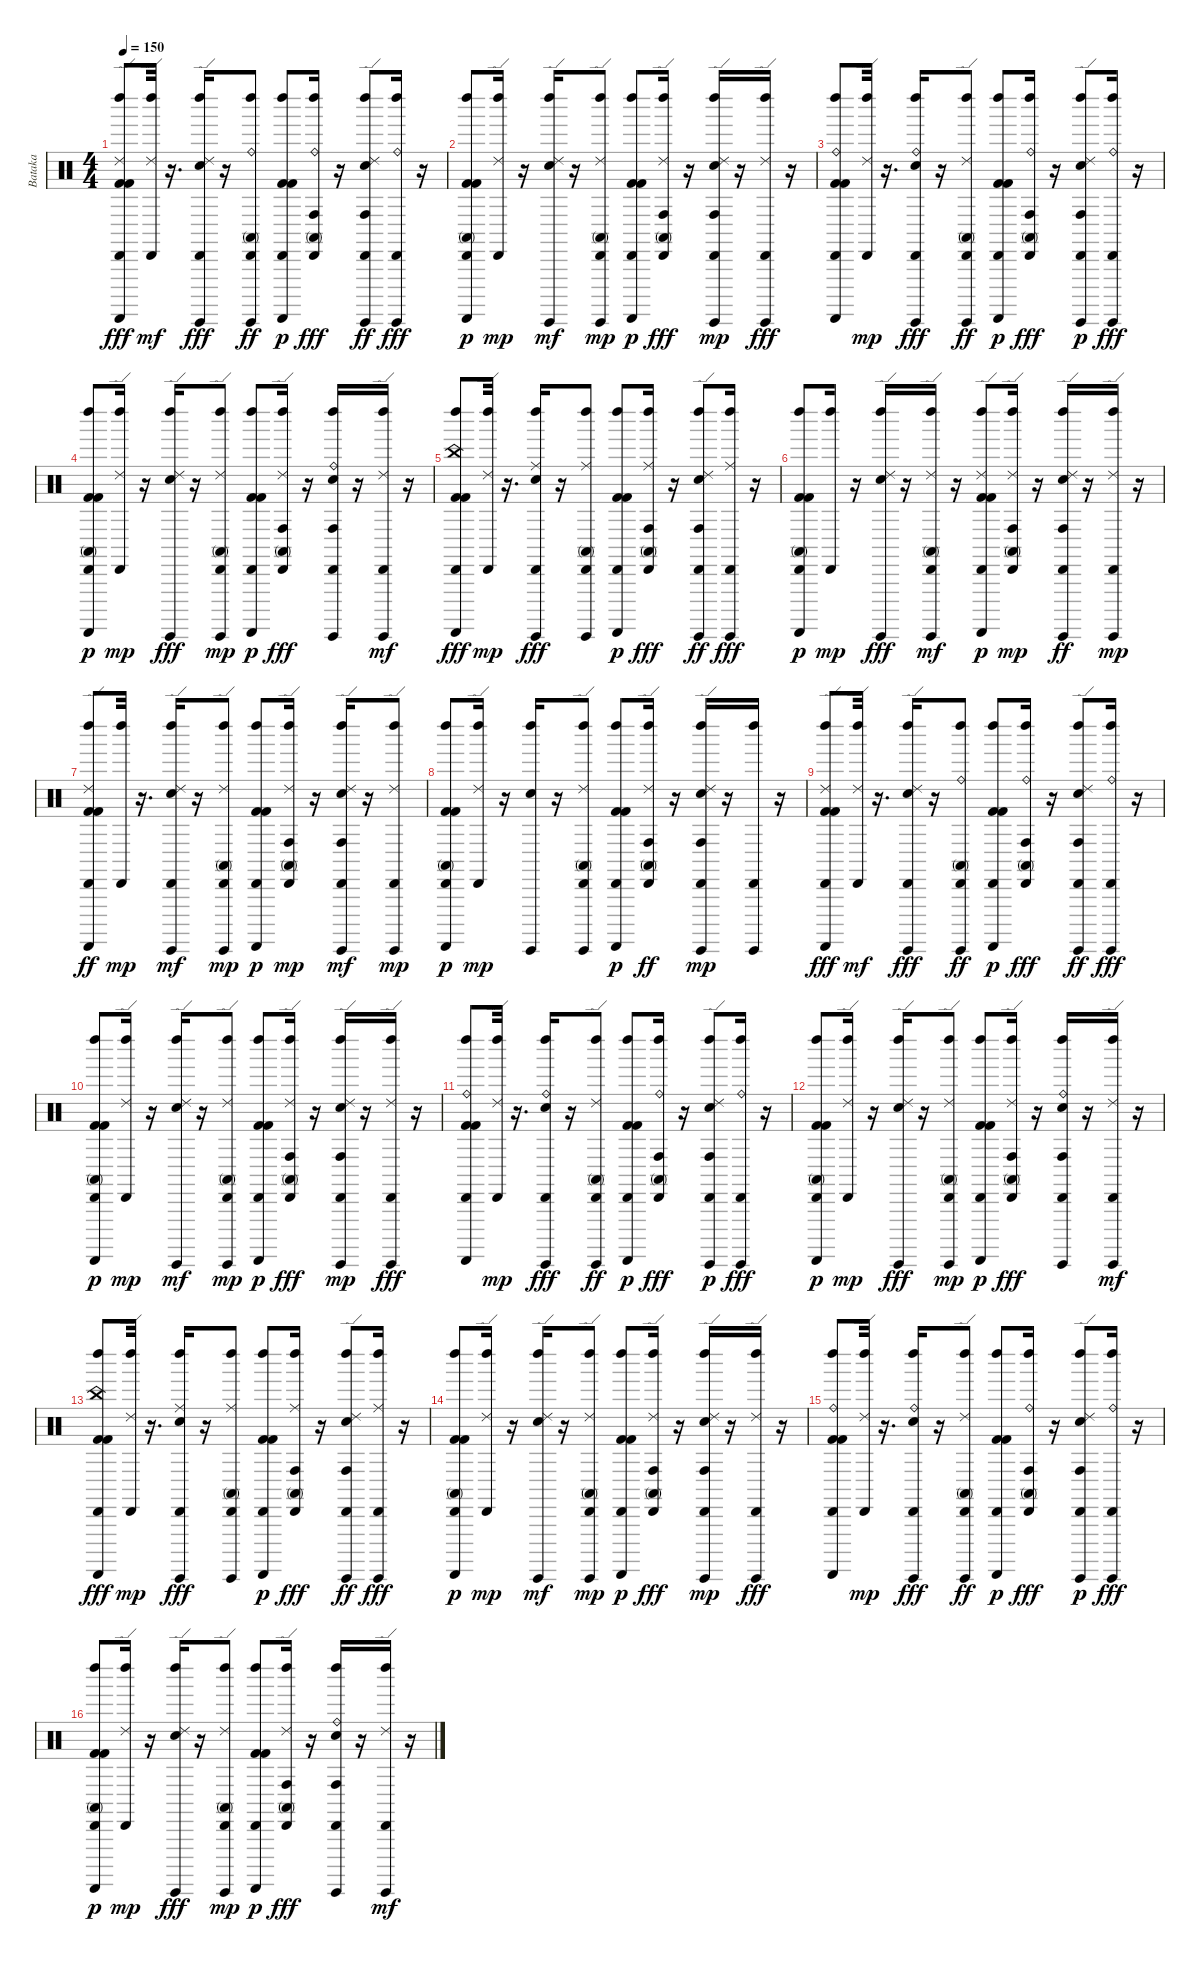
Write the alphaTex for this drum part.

\track ("Bataka" "Bataka") {instrument percussion}
\staff {score}
\articulation defaults
\ts (4 4)
\tempo 150
\clef neutral
\ks c
("Kick (hit) 2" "Kick (hit) 2" "Cabasa (hit)" "Guiro (scrap-return)" "Left Maraca (hit)" "Ride (edge) 2").8{dy fff} ("Cabasa (hit)" "Left Maraca (hit)" "Ride (edge) 2").32{dy mf} r.16{d} ("Electric Snare (hit)" "Cabasa (hit)" "Guiro (hit)" "Left Maraca (hit)" "Ride (edge) 2").16{dy fff} r.16 ("Conga high (mute)" "Cabasa (hit)" "Guiro (hit)" "Left Maraca (hit)" "Ride (bell)").8{dy ff} ("Kick (hit) 2" "Kick (hit) 2" "Cabasa (hit)" "Guiro (scrap-return)" "Left Maraca (hit)").8{dy p} ("Conga high (hit)" "Conga high (mute)" "Cabasa (hit)" "Left Maraca (hit)" "Ride (bell)").16{dy fff} r.16 ("Electric Snare (hit)" "Conga high (hit)" "Cabasa (hit)" "Guiro (hit)" "Left Maraca (hit)" "Ride (edge) 2").8{dy ff} ("Cabasa (hit)" "Guiro (hit)" "Left Maraca (hit)" "Ride (bell)").16{dy fff} r.16 |
("Kick (hit) 2" "Kick (hit) 2" "Conga high (mute)" "Cabasa (hit)" "Guiro (scrap-return)" "Left Maraca (hit)").8{dy p} ("Cabasa (hit)" "Left Maraca (hit)" "Ride (edge) 2").16{dy mp} r.16 ("Electric Snare (hit)" "Guiro (hit)" "Left Maraca (hit)" "Ride (edge) 2").16{dy mf} r.16 ("Conga high (mute)" "Cabasa (hit)" "Guiro (hit)" "Left Maraca (hit)" "Ride (edge) 2").8{dy mp} ("Kick (hit) 2" "Kick (hit) 2" "Cabasa (hit)" "Guiro (scrap-return)" "Left Maraca (hit)").8{dy p} ("Conga high (hit)" "Conga high (mute)" "Cabasa (hit)" "Left Maraca (hit)" "Ride (edge) 2").16{dy fff} r.16 ("Electric Snare (hit)" "Conga high (hit)" "Cabasa (hit)" "Guiro (hit)" "Left Maraca (hit)" "Ride (edge) 2").16{dy mp} r.16 ("Cabasa (hit)" "Guiro (hit)" "Left Maraca (hit)" "Ride (edge) 2").16{dy fff} r.16 |
("Kick (hit) 2" "Kick (hit) 2" "Cabasa (hit)" "Guiro (scrap-return)" "Left Maraca (hit)" "Ride (bell)").8 ("Cabasa (hit)" "Left Maraca (hit)" "Ride (edge) 2").32{dy mp} r.16{d} ("Electric Snare (hit)" "Cabasa (hit)" "Guiro (hit)" "Left Maraca (hit)" "Ride (bell)").16{dy fff} r.16 ("Conga high (mute)" "Cabasa (hit)" "Guiro (hit)" "Left Maraca (hit)" "Ride (edge) 2").8{dy ff} ("Kick (hit) 2" "Kick (hit) 2" "Cabasa (hit)" "Guiro (scrap-return)" "Left Maraca (hit)").8{dy p} ("Conga high (hit)" "Conga high (mute)" "Cabasa (hit)" "Left Maraca (hit)" "Ride (bell)").16{dy fff} r.16 ("Electric Snare (hit)" "Conga high (hit)" "Cabasa (hit)" "Guiro (hit)" "Left Maraca (hit)" "Ride (edge) 2").8{dy p} ("Cabasa (hit)" "Guiro (hit)" "Left Maraca (hit)" "Ride (bell)").16{dy fff} r.16 |
("Kick (hit) 2" "Kick (hit) 2" "Conga high (mute)" "Cabasa (hit)" "Guiro (scrap-return)" "Left Maraca (hit)").8{dy p} ("Cabasa (hit)" "Left Maraca (hit)" "Ride (edge) 2").16{dy mp} r.16 ("Electric Snare (hit)" "Guiro (hit)" "Left Maraca (hit)" "Ride (edge) 2").16{dy fff} r.16 ("Conga high (mute)" "Cabasa (hit)" "Guiro (hit)" "Left Maraca (hit)" "Ride (edge) 2").8{dy mp} ("Kick (hit) 2" "Kick (hit) 2" "Cabasa (hit)" "Guiro (scrap-return)" "Left Maraca (hit)").8{dy p} ("Conga high (hit)" "Conga high (mute)" "Cabasa (hit)" "Left Maraca (hit)" "Ride (edge) 2").16{dy fff} r.16 ("Electric Snare (hit)" "Conga high (hit)" "Cabasa (hit)" "Guiro (hit)" "Left Maraca (hit)" "Ride (bell)").16 r.16 ("Cabasa (hit)" "Guiro (hit)" "Left Maraca (hit)" "Ride (edge) 2").16{dy mf} r.16 |
("Kick (hit) 2" "Kick (hit) 2" "Cabasa (hit)" "Guiro (scrap-return)" "Left Maraca (hit)" "China (hit)").8{dy fff} ("Cabasa (hit)" "Left Maraca (hit)" "Ride (edge) 2").32{dy mp} r.16{d} ("Electric Snare (hit)" "Cabasa (hit)" "Guiro (hit)" "Left Maraca (hit)" "Ride (middle)").16{dy fff} r.16 ("Conga high (mute)" "Cabasa (hit)" "Guiro (hit)" "Left Maraca (hit)" "Ride (middle)").8 ("Kick (hit) 2" "Kick (hit) 2" "Cabasa (hit)" "Guiro (scrap-return)" "Left Maraca (hit)").8{dy p} ("Conga high (hit)" "Conga high (mute)" "Cabasa (hit)" "Left Maraca (hit)" "Ride (middle)").16{dy fff} r.16 ("Electric Snare (hit)" "Conga high (hit)" "Cabasa (hit)" "Guiro (hit)" "Left Maraca (hit)" "Ride (edge) 2").8{dy ff} ("Cabasa (hit)" "Guiro (hit)" "Left Maraca (hit)" "Ride (middle)").16{dy fff} r.16 |
("Kick (hit) 2" "Kick (hit) 2" "Conga high (mute)" "Cabasa (hit)" "Guiro (scrap-return)" "Left Maraca (hit)").8{dy p} ("Cabasa (hit)" "Left Maraca (hit)").16{dy mp} r.16 ("Electric Snare (hit)" "Guiro (hit)" "Left Maraca (hit)" "Ride (edge) 2").16{dy fff} r.16 ("Conga high (mute)" "Cabasa (hit)" "Guiro (hit)" "Left Maraca (hit)" "Ride (edge) 2").16{dy mf} r.16 ("Kick (hit) 2" "Kick (hit) 2" "Cabasa (hit)" "Guiro (scrap-return)" "Left Maraca (hit)" "Ride (edge) 2").8{dy p} ("Conga high (hit)" "Conga high (mute)" "Cabasa (hit)" "Left Maraca (hit)" "Ride (edge) 2").16{dy mp} r.16 ("Electric Snare (hit)" "Conga high (hit)" "Cabasa (hit)" "Guiro (hit)" "Left Maraca (hit)" "Ride (edge) 2").16{dy ff} r.16 ("Cabasa (hit)" "Guiro (hit)" "Left Maraca (hit)" "Ride (edge) 2").16{dy mp} r.16 |
("Kick (hit) 2" "Kick (hit) 2" "Cabasa (hit)" "Guiro (scrap-return)" "Left Maraca (hit)" "Ride (edge) 2").8{dy ff} ("Cabasa (hit)" "Left Maraca (hit)").32{dy mp} r.16{d} ("Electric Snare (hit)" "Cabasa (hit)" "Guiro (hit)" "Left Maraca (hit)" "Ride (edge) 2").16{dy mf} r.16 ("Conga high (mute)" "Cabasa (hit)" "Guiro (hit)" "Left Maraca (hit)" "Ride (edge) 2").8{dy mp} ("Kick (hit) 2" "Kick (hit) 2" "Cabasa (hit)" "Guiro (scrap-return)" "Left Maraca (hit)").8{dy p} ("Conga high (hit)" "Conga high (mute)" "Cabasa (hit)" "Left Maraca (hit)" "Ride (edge) 2").16{dy mp} r.16 ("Electric Snare (hit)" "Conga high (hit)" "Cabasa (hit)" "Guiro (hit)" "Left Maraca (hit)" "Ride (edge) 2").16{dy mf} r.16 ("Cabasa (hit)" "Guiro (hit)" "Left Maraca (hit)" "Ride (edge) 2").8{dy mp} |
("Kick (hit) 2" "Kick (hit) 2" "Conga high (mute)" "Cabasa (hit)" "Guiro (scrap-return)" "Left Maraca (hit)").8{dy p} ("Cabasa (hit)" "Left Maraca (hit)" "Ride (edge) 2").16{dy mp} r.16 ("Electric Snare (hit)" "Guiro (hit)" "Left Maraca (hit)").16 r.16 ("Conga high (mute)" "Cabasa (hit)" "Guiro (hit)" "Left Maraca (hit)" "Ride (edge) 2").8 ("Kick (hit) 2" "Kick (hit) 2" "Cabasa (hit)" "Guiro (scrap-return)" "Left Maraca (hit)").8{dy p} ("Conga high (hit)" "Conga high (mute)" "Cabasa (hit)" "Left Maraca (hit)" "Ride (edge) 2").16{dy ff} r.16 ("Electric Snare (hit)" "Conga high (hit)" "Cabasa (hit)" "Guiro (hit)" "Left Maraca (hit)" "Ride (edge) 2").16{dy mp} r.16 ("Cabasa (hit)" "Guiro (hit)" "Left Maraca (hit)").16 r.16 |
("Kick (hit) 2" "Kick (hit) 2" "Cabasa (hit)" "Guiro (scrap-return)" "Left Maraca (hit)" "Ride (edge) 2").8{dy fff} ("Cabasa (hit)" "Left Maraca (hit)" "Ride (edge) 2").32{dy mf} r.16{d} ("Electric Snare (hit)" "Cabasa (hit)" "Guiro (hit)" "Left Maraca (hit)" "Ride (edge) 2").16{dy fff} r.16 ("Conga high (mute)" "Cabasa (hit)" "Guiro (hit)" "Left Maraca (hit)" "Ride (bell)").8{dy ff} ("Kick (hit) 2" "Kick (hit) 2" "Cabasa (hit)" "Guiro (scrap-return)" "Left Maraca (hit)").8{dy p} ("Conga high (hit)" "Conga high (mute)" "Cabasa (hit)" "Left Maraca (hit)" "Ride (bell)").16{dy fff} r.16 ("Electric Snare (hit)" "Conga high (hit)" "Cabasa (hit)" "Guiro (hit)" "Left Maraca (hit)" "Ride (edge) 2").8{dy ff} ("Cabasa (hit)" "Guiro (hit)" "Left Maraca (hit)" "Ride (bell)").16{dy fff} r.16 |
("Kick (hit) 2" "Kick (hit) 2" "Conga high (mute)" "Cabasa (hit)" "Guiro (scrap-return)" "Left Maraca (hit)").8{dy p} ("Cabasa (hit)" "Left Maraca (hit)" "Ride (edge) 2").16{dy mp} r.16 ("Electric Snare (hit)" "Guiro (hit)" "Left Maraca (hit)" "Ride (edge) 2").16{dy mf} r.16 ("Conga high (mute)" "Cabasa (hit)" "Guiro (hit)" "Left Maraca (hit)" "Ride (edge) 2").8{dy mp} ("Kick (hit) 2" "Kick (hit) 2" "Cabasa (hit)" "Guiro (scrap-return)" "Left Maraca (hit)").8{dy p} ("Conga high (hit)" "Conga high (mute)" "Cabasa (hit)" "Left Maraca (hit)" "Ride (edge) 2").16{dy fff} r.16 ("Electric Snare (hit)" "Conga high (hit)" "Cabasa (hit)" "Guiro (hit)" "Left Maraca (hit)" "Ride (edge) 2").16{dy mp} r.16 ("Cabasa (hit)" "Guiro (hit)" "Left Maraca (hit)" "Ride (edge) 2").16{dy fff} r.16 |
("Kick (hit) 2" "Kick (hit) 2" "Cabasa (hit)" "Guiro (scrap-return)" "Left Maraca (hit)" "Ride (bell)").8 ("Cabasa (hit)" "Left Maraca (hit)" "Ride (edge) 2").32{dy mp} r.16{d} ("Electric Snare (hit)" "Cabasa (hit)" "Guiro (hit)" "Left Maraca (hit)" "Ride (bell)").16{dy fff} r.16 ("Conga high (mute)" "Cabasa (hit)" "Guiro (hit)" "Left Maraca (hit)" "Ride (edge) 2").8{dy ff} ("Kick (hit) 2" "Kick (hit) 2" "Cabasa (hit)" "Guiro (scrap-return)" "Left Maraca (hit)").8{dy p} ("Conga high (hit)" "Conga high (mute)" "Cabasa (hit)" "Left Maraca (hit)" "Ride (bell)").16{dy fff} r.16 ("Electric Snare (hit)" "Conga high (hit)" "Cabasa (hit)" "Guiro (hit)" "Left Maraca (hit)" "Ride (edge) 2").8{dy p} ("Cabasa (hit)" "Guiro (hit)" "Left Maraca (hit)" "Ride (bell)").16{dy fff} r.16 |
("Kick (hit) 2" "Kick (hit) 2" "Conga high (mute)" "Cabasa (hit)" "Guiro (scrap-return)" "Left Maraca (hit)").8{dy p} ("Cabasa (hit)" "Left Maraca (hit)" "Ride (edge) 2").16{dy mp} r.16 ("Electric Snare (hit)" "Guiro (hit)" "Left Maraca (hit)" "Ride (edge) 2").16{dy fff} r.16 ("Conga high (mute)" "Cabasa (hit)" "Guiro (hit)" "Left Maraca (hit)" "Ride (edge) 2").8{dy mp} ("Kick (hit) 2" "Kick (hit) 2" "Cabasa (hit)" "Guiro (scrap-return)" "Left Maraca (hit)").8{dy p} ("Conga high (hit)" "Conga high (mute)" "Cabasa (hit)" "Left Maraca (hit)" "Ride (edge) 2").16{dy fff} r.16 ("Electric Snare (hit)" "Conga high (hit)" "Cabasa (hit)" "Guiro (hit)" "Left Maraca (hit)" "Ride (bell)").16 r.16 ("Cabasa (hit)" "Guiro (hit)" "Left Maraca (hit)" "Ride (edge) 2").16{dy mf} r.16 |
("Kick (hit) 2" "Kick (hit) 2" "Cabasa (hit)" "Guiro (scrap-return)" "Left Maraca (hit)" "China (hit)").8{dy fff} ("Cabasa (hit)" "Left Maraca (hit)" "Ride (edge) 2").32{dy mp} r.16{d} ("Electric Snare (hit)" "Cabasa (hit)" "Guiro (hit)" "Left Maraca (hit)" "Ride (middle)").16{dy fff} r.16 ("Conga high (mute)" "Cabasa (hit)" "Guiro (hit)" "Left Maraca (hit)" "Ride (middle)").8 ("Kick (hit) 2" "Kick (hit) 2" "Cabasa (hit)" "Guiro (scrap-return)" "Left Maraca (hit)").8{dy p} ("Conga high (hit)" "Conga high (mute)" "Cabasa (hit)" "Left Maraca (hit)" "Ride (middle)").16{dy fff} r.16 ("Electric Snare (hit)" "Conga high (hit)" "Cabasa (hit)" "Guiro (hit)" "Left Maraca (hit)" "Ride (edge) 2").8{dy ff} ("Cabasa (hit)" "Guiro (hit)" "Left Maraca (hit)" "Ride (middle)").16{dy fff} r.16 |
("Kick (hit) 2" "Kick (hit) 2" "Conga high (mute)" "Cabasa (hit)" "Guiro (scrap-return)" "Left Maraca (hit)").8{dy p} ("Cabasa (hit)" "Left Maraca (hit)" "Ride (edge) 2").16{dy mp} r.16 ("Electric Snare (hit)" "Guiro (hit)" "Left Maraca (hit)" "Ride (edge) 2").16{dy mf} r.16 ("Conga high (mute)" "Cabasa (hit)" "Guiro (hit)" "Left Maraca (hit)" "Ride (edge) 2").8{dy mp} ("Kick (hit) 2" "Kick (hit) 2" "Cabasa (hit)" "Guiro (scrap-return)" "Left Maraca (hit)").8{dy p} ("Conga high (hit)" "Conga high (mute)" "Cabasa (hit)" "Left Maraca (hit)" "Ride (edge) 2").16{dy fff} r.16 ("Electric Snare (hit)" "Conga high (hit)" "Cabasa (hit)" "Guiro (hit)" "Left Maraca (hit)" "Ride (edge) 2").16{dy mp} r.16 ("Cabasa (hit)" "Guiro (hit)" "Left Maraca (hit)" "Ride (edge) 2").16{dy fff} r.16 |
("Kick (hit) 2" "Kick (hit) 2" "Cabasa (hit)" "Guiro (scrap-return)" "Left Maraca (hit)" "Ride (bell)").8 ("Cabasa (hit)" "Left Maraca (hit)" "Ride (edge) 2").32{dy mp} r.16{d} ("Electric Snare (hit)" "Cabasa (hit)" "Guiro (hit)" "Left Maraca (hit)" "Ride (bell)").16{dy fff} r.16 ("Conga high (mute)" "Cabasa (hit)" "Guiro (hit)" "Left Maraca (hit)" "Ride (edge) 2").8{dy ff} ("Kick (hit) 2" "Kick (hit) 2" "Cabasa (hit)" "Guiro (scrap-return)" "Left Maraca (hit)").8{dy p} ("Conga high (hit)" "Conga high (mute)" "Cabasa (hit)" "Left Maraca (hit)" "Ride (bell)").16{dy fff} r.16 ("Electric Snare (hit)" "Conga high (hit)" "Cabasa (hit)" "Guiro (hit)" "Left Maraca (hit)" "Ride (edge) 2").8{dy p} ("Cabasa (hit)" "Guiro (hit)" "Left Maraca (hit)" "Ride (bell)").16{dy fff} r.16 |
("Kick (hit) 2" "Kick (hit) 2" "Conga high (mute)" "Cabasa (hit)" "Guiro (scrap-return)" "Left Maraca (hit)").8{dy p} ("Cabasa (hit)" "Left Maraca (hit)" "Ride (edge) 2").16{dy mp} r.16 ("Electric Snare (hit)" "Guiro (hit)" "Left Maraca (hit)" "Ride (edge) 2").16{dy fff} r.16 ("Conga high (mute)" "Cabasa (hit)" "Guiro (hit)" "Left Maraca (hit)" "Ride (edge) 2").8{dy mp} ("Kick (hit) 2" "Kick (hit) 2" "Cabasa (hit)" "Guiro (scrap-return)" "Left Maraca (hit)").8{dy p} ("Conga high (hit)" "Conga high (mute)" "Cabasa (hit)" "Left Maraca (hit)" "Ride (edge) 2").16{dy fff} r.16 ("Electric Snare (hit)" "Conga high (hit)" "Cabasa (hit)" "Guiro (hit)" "Left Maraca (hit)" "Ride (bell)").16 r.16 ("Cabasa (hit)" "Guiro (hit)" "Left Maraca (hit)" "Ride (edge) 2").16{dy mf} r.16
